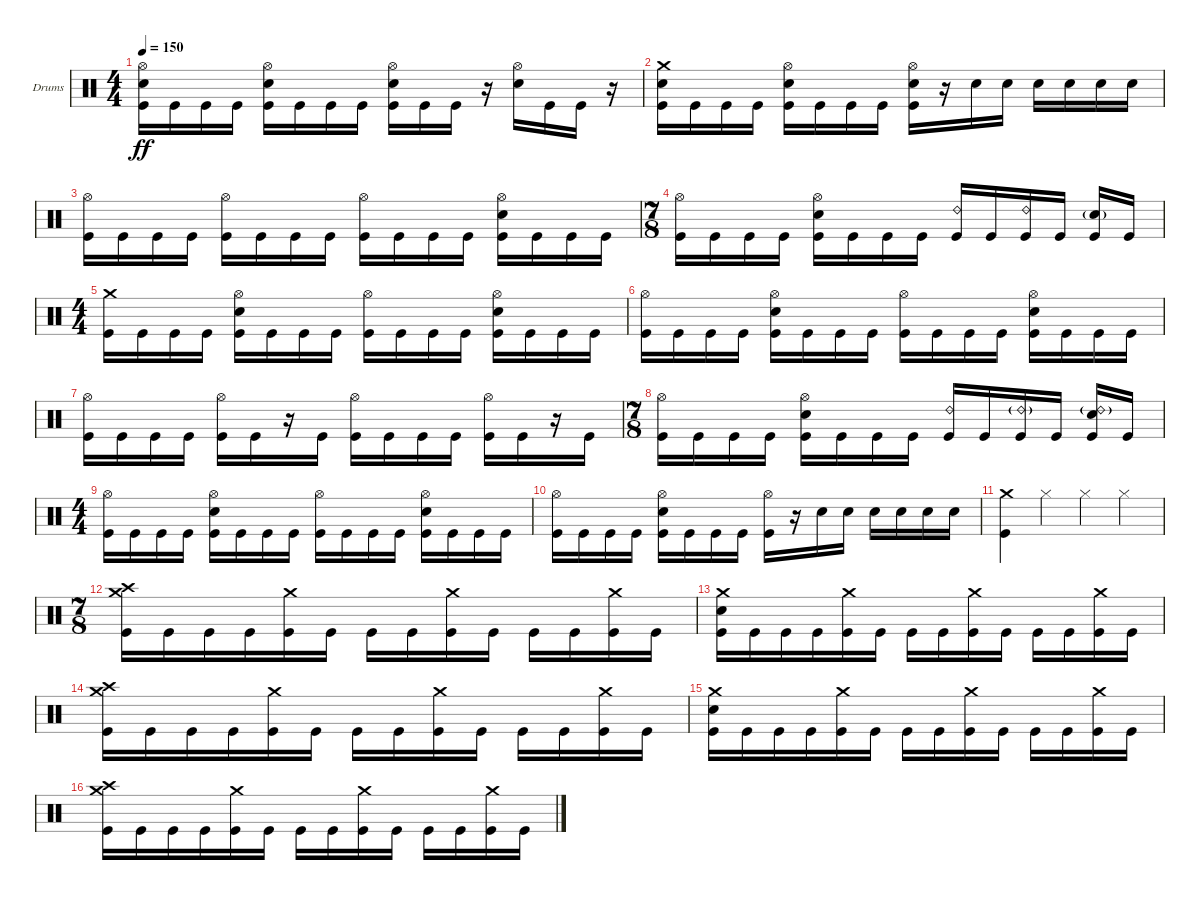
\bracketExtendMode groupsimilarinstruments
\firstSystemTrackNameOrientation horizontal
\otherSystemsTrackNameOrientation horizontal
\track ("Drumkit" "Drums") {instrument percussion}
\staff {score}
\articulation defaults
\ts (4 4)
\beaming (8 2 2 2 2)
\tempo 150
\clef neutral
\ks c
("Hi-Hat (open)" "Snare (hit) 2" "Kick (hit)").16{dy ff} "Kick (hit)".16 "Kick (hit)".16 "Kick (hit)".16 ("Hi-Hat (open)" "Snare (hit) 2" "Kick (hit)").16 "Kick (hit)".16 "Kick (hit)".16 "Kick (hit)".16 ("Hi-Hat (open)" "Snare (hit) 2" "Kick (hit)").16 "Kick (hit)".16 "Kick (hit)".16 r.16 ("Hi-Hat (open)" "Snare (hit) 2").16 "Kick (hit)".16 "Kick (hit)".16 r.16 |
("Crash medium (hit)" "Snare (hit) 2" "Kick (hit)").16 "Kick (hit)".16 "Kick (hit)".16 "Kick (hit)".16 ("Hi-Hat (open)" "Snare (hit) 2" "Kick (hit)").16 "Kick (hit)".16 "Kick (hit)".16 "Kick (hit)".16 ("Hi-Hat (open)" "Snare (hit) 2" "Kick (hit)").16 r.16 "Snare (hit) 2".16 "Snare (hit) 2".16 "Snare (hit) 2".16 "Snare (hit) 2".16 "Snare (hit) 2".16 "Snare (hit) 2".16 |
("Hi-Hat (open)" "Kick (hit)").16 "Kick (hit)".16 "Kick (hit)".16 "Kick (hit)".16 ("Hi-Hat (open)" "Kick (hit)").16 "Kick (hit)".16 "Kick (hit)".16 "Kick (hit)".16 ("Hi-Hat (open)" "Kick (hit)").16 "Kick (hit)".16 "Kick (hit)".16 "Kick (hit)".16 ("Hi-Hat (open)" "Snare (hit) 2" "Kick (hit)").16 "Kick (hit)".16 "Kick (hit)".16 "Kick (hit)".16 |
\ts (7 8)
\beaming (8 2 2 2 2)
("Hi-Hat (open)" "Kick (hit)").16 "Kick (hit)".16 "Kick (hit)".16 "Kick (hit)".16 ("Hi-Hat (open)" "Snare (hit) 2" "Kick (hit)").16 "Kick (hit)".16 "Kick (hit)".16 "Kick (hit)".16 ("Ride (bell) 2" "Kick (hit)").16 "Kick (hit)".16 ("Ride (bell) 2" "Kick (hit)").16 "Kick (hit)".16 ("Snare (hit) 2"{g} "Kick (hit)").16 "Kick (hit)".16 |
\ts (4 4)
\beaming (8 2 2 2 2)
("Crash medium (hit)" "Kick (hit)").16 "Kick (hit)".16 "Kick (hit)".16 "Kick (hit)".16 ("Hi-Hat (open)" "Snare (hit) 2" "Kick (hit)").16 "Kick (hit)".16 "Kick (hit)".16 "Kick (hit)".16 ("Hi-Hat (open)" "Kick (hit)").16 "Kick (hit)".16 "Kick (hit)".16 "Kick (hit)".16 ("Hi-Hat (open)" "Snare (hit) 2" "Kick (hit)").16 "Kick (hit)".16 "Kick (hit)".16 "Kick (hit)".16 |
("Hi-Hat (open)" "Kick (hit)").16 "Kick (hit)".16 "Kick (hit)".16 "Kick (hit)".16 ("Hi-Hat (open)" "Snare (hit) 2" "Kick (hit)").16 "Kick (hit)".16 "Kick (hit)".16 "Kick (hit)".16 ("Hi-Hat (open)" "Kick (hit)").16 "Kick (hit)".16 "Kick (hit)".16 "Kick (hit)".16 ("Hi-Hat (open)" "Snare (hit) 2" "Kick (hit)").16 "Kick (hit)".16 "Kick (hit)".16 "Kick (hit)".16 |
("Hi-Hat (open)" "Kick (hit)").16 "Kick (hit)".16 "Kick (hit)".16 "Kick (hit)".16 ("Hi-Hat (open)" "Kick (hit)").16 "Kick (hit)".16 r.16 "Kick (hit)".16 ("Hi-Hat (open)" "Kick (hit)").16 "Kick (hit)".16 "Kick (hit)".16 "Kick (hit)".16 ("Hi-Hat (open)" "Kick (hit)").16 "Kick (hit)".16 r.16 "Kick (hit)".16 |
\ts (7 8)
\beaming (8 2 2 2 2)
("Hi-Hat (open)" "Kick (hit)").16 "Kick (hit)".16 "Kick (hit)".16 "Kick (hit)".16 ("Hi-Hat (open)" "Snare (hit) 2" "Kick (hit)").16 "Kick (hit)".16 "Kick (hit)".16 "Kick (hit)".16 ("Ride (bell) 2" "Kick (hit)").16 "Kick (hit)".16 ("Ride (bell) 2"{g} "Kick (hit)").16 "Kick (hit)".16 ("Ride (bell) 2"{g} "Snare (hit) 2" "Kick (hit)").16 "Kick (hit)".16 |
\ts (4 4)
\beaming (8 2 2 2 2)
("Hi-Hat (open)" "Kick (hit)").16 "Kick (hit)".16 "Kick (hit)".16 "Kick (hit)".16 ("Hi-Hat (open)" "Snare (hit) 2" "Kick (hit)").16 "Kick (hit)".16 "Kick (hit)".16 "Kick (hit)".16 ("Hi-Hat (open)" "Kick (hit)").16 "Kick (hit)".16 "Kick (hit)".16 "Kick (hit)".16 ("Hi-Hat (open)" "Snare (hit) 2" "Kick (hit)").16 "Kick (hit)".16 "Kick (hit)".16 "Kick (hit)".16 |
("Hi-Hat (open)" "Kick (hit)").16 "Kick (hit)".16 "Kick (hit)".16 "Kick (hit)".16 ("Hi-Hat (open)" "Snare (hit) 2" "Kick (hit)").16 "Kick (hit)".16 "Kick (hit)".16 "Kick (hit)".16 ("Hi-Hat (open)" "Kick (hit)").16 r.16 "Snare (hit) 2".16 "Snare (hit) 2".16 "Snare (hit) 2".16 "Snare (hit) 2".16 "Snare (hit) 2".16 "Snare (hit) 2".16 |
("Crash medium (hit)" "Kick (hit)").4 "Hi-Hat (closed)".4 "Hi-Hat (closed)".4 "Hi-Hat (closed)".4 |
\ts (7 8)
\beaming (8 3 2 2)
("Crash medium (hit)" "Crash high (hit)" "Kick (hit)").16 "Kick (hit)".16 "Kick (hit)".16 "Kick (hit)".16 ("Crash medium (hit)" "Kick (hit)").16 "Kick (hit)".16 "Kick (hit)".16 "Kick (hit)".16 ("Crash medium (hit)" "Kick (hit)").16 "Kick (hit)".16 "Kick (hit)".16 "Kick (hit)".16 ("Crash medium (hit)" "Kick (hit)").16 "Kick (hit)".16 |
("Crash medium (hit)" "Snare (hit) 2" "Kick (hit)").16 "Kick (hit)".16 "Kick (hit)".16 "Kick (hit)".16 ("Crash medium (hit)" "Kick (hit)").16 "Kick (hit)".16 "Kick (hit)".16 "Kick (hit)".16 ("Crash medium (hit)" "Kick (hit)").16 "Kick (hit)".16 "Kick (hit)".16 "Kick (hit)".16 ("Crash medium (hit)" "Kick (hit)").16 "Kick (hit)".16 |
("Crash medium (hit)" "Crash high (hit)" "Kick (hit)").16 "Kick (hit)".16 "Kick (hit)".16 "Kick (hit)".16 ("Crash medium (hit)" "Kick (hit)").16 "Kick (hit)".16 "Kick (hit)".16 "Kick (hit)".16 ("Crash medium (hit)" "Kick (hit)").16 "Kick (hit)".16 "Kick (hit)".16 "Kick (hit)".16 ("Crash medium (hit)" "Kick (hit)").16 "Kick (hit)".16 |
("Crash medium (hit)" "Snare (hit) 2" "Kick (hit)").16 "Kick (hit)".16 "Kick (hit)".16 "Kick (hit)".16 ("Crash medium (hit)" "Kick (hit)").16 "Kick (hit)".16 "Kick (hit)".16 "Kick (hit)".16 ("Crash medium (hit)" "Kick (hit)").16 "Kick (hit)".16 "Kick (hit)".16 "Kick (hit)".16 ("Crash medium (hit)" "Kick (hit)").16 "Kick (hit)".16 |
("Crash medium (hit)" "Crash high (hit)" "Kick (hit)").16 "Kick (hit)".16 "Kick (hit)".16 "Kick (hit)".16 ("Crash medium (hit)" "Kick (hit)").16 "Kick (hit)".16 "Kick (hit)".16 "Kick (hit)".16 ("Crash medium (hit)" "Kick (hit)").16 "Kick (hit)".16 "Kick (hit)".16 "Kick (hit)".16 ("Crash medium (hit)" "Kick (hit)").16 "Kick (hit)".16
